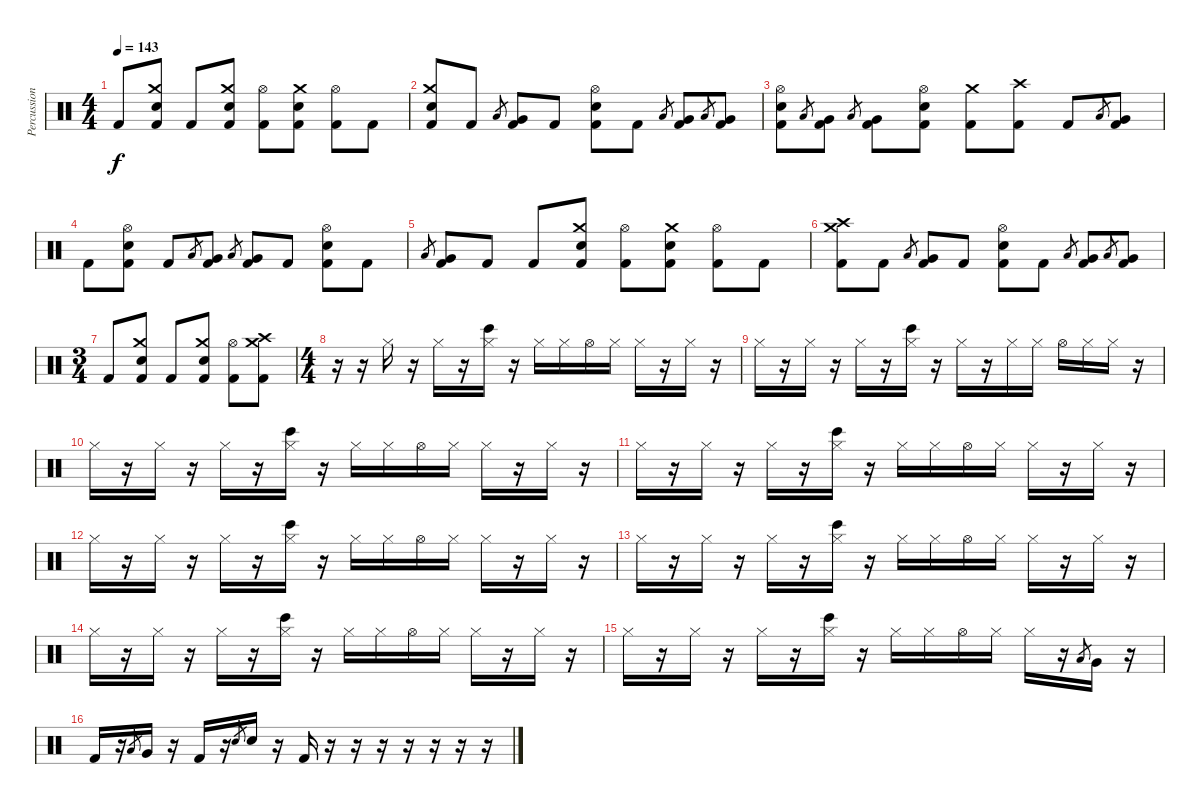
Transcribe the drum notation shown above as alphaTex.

\track ("Percussion" "Percussion") {instrument percussion}
\staff {score}
\articulation defaults
\ts (4 4)
\tempo 143
\clef neutral
\ks c "Kick (hit) 2".8{dy f}
("Crash medium (hit)" "Electric Snare (hit)" "Kick (hit) 2").8 "Kick (hit) 2".8 ("Crash medium (hit)" "Electric Snare (hit)" "Kick (hit) 2").8 ("Hi-Hat (open)" "Kick (hit) 2").8 ("Crash medium (hit)" "Electric Snare (hit)" "Kick (hit) 2").8 ("Hi-Hat (open)" "Kick (hit) 2").8 "Kick (hit) 2".8 |
("Crash medium (hit)" "Electric Snare (hit)" "Kick (hit) 2").8 "Kick (hit) 2".8 "Low Tom (hit)".8{gr} ("Very Low Tom (hit)" "Kick (hit) 2").8 "Kick (hit) 2".8 ("Hi-Hat (open)" "Electric Snare (hit)" "Kick (hit) 2").8 "Kick (hit) 2".8 "Low Tom (hit)".8{gr} ("Very Low Tom (hit)" "Kick (hit) 2").8 "Low Tom (hit)".8{gr} ("Very Low Tom (hit)" "Kick (hit) 2").8 |
("Hi-Hat (open)" "Electric Snare (hit)" "Kick (hit) 2").8 "Low Tom (hit)".8{gr} ("Very Low Tom (hit)" "Kick (hit) 2").8 "Low Tom (hit)".8{gr} ("Very Low Tom (hit)" "Kick (hit) 2").8 ("Hi-Hat (open)" "Electric Snare (hit)" "Kick (hit) 2").8 ("Crash medium (hit)" "Kick (hit) 2").8 ("Crash high (hit)" "Kick (hit) 2").8 "Kick (hit) 2".8 "Low Tom (hit)".8{gr} ("Very Low Tom (hit)" "Kick (hit) 2").8 |
"Kick (hit) 2".8 ("Hi-Hat (open)" "Electric Snare (hit)" "Kick (hit) 2").8 "Kick (hit) 2".8 "Low Tom (hit)".8{gr} ("Very Low Tom (hit)" "Kick (hit) 2").8 "Low Tom (hit)".8{gr} ("Very Low Tom (hit)" "Kick (hit) 2").8 "Kick (hit) 2".8 ("Hi-Hat (open)" "Electric Snare (hit)" "Kick (hit) 2").8 "Kick (hit) 2".8 |
"Low Tom (hit)".8{gr} ("Very Low Tom (hit)" "Kick (hit) 2").8 "Kick (hit) 2".8 "Kick (hit) 2".8 ("Crash medium (hit)" "Electric Snare (hit)" "Kick (hit) 2").8 ("Hi-Hat (open)" "Kick (hit) 2").8 ("Crash medium (hit)" "Electric Snare (hit)" "Kick (hit) 2").8 ("Hi-Hat (open)" "Kick (hit) 2").8 "Kick (hit) 2".8 |
("Crash medium (hit)" "Crash high (hit)" "Kick (hit) 2").8 "Kick (hit) 2".8 "Low Tom (hit)".8{gr} ("Very Low Tom (hit)" "Kick (hit) 2").8 "Kick (hit) 2".8 ("Hi-Hat (open)" "Electric Snare (hit)" "Kick (hit) 2").8 "Kick (hit) 2".8 "Low Tom (hit)".8{gr} ("Very Low Tom (hit)" "Kick (hit) 2").8 "Low Tom (hit)".8{gr} ("Very Low Tom (hit)" "Kick (hit) 2").8 |
\ts (3 4)
"Kick (hit) 2".8 ("Crash medium (hit)" "Electric Snare (hit)" "Kick (hit) 2").8 "Kick (hit) 2".8 ("Crash medium (hit)" "Electric Snare (hit)" "Kick (hit) 2").8 ("Hi-Hat (open)" "Kick (hit) 2").8 ("Crash medium (hit)" "Crash high (hit)" "Kick (hit) 2").8 |
\ts (4 4)
r.16 r.16 "Hi-Hat (closed)".16 r.16 "Hi-Hat (closed)".16 r.16 ("Hi-Hat (closed)" "Bongo High (hit)").16 r.16 "Hi-Hat (closed)".16 "Hi-Hat (closed)".16 "Hi-Hat (open)".16 "Hi-Hat (closed)".16 "Hi-Hat (closed)".16 r.16 "Hi-Hat (closed)".16 r.16 |
"Hi-Hat (closed)".16 r.16 "Hi-Hat (closed)".16 r.16 "Hi-Hat (closed)".16 r.16 ("Hi-Hat (closed)" "Bongo High (hit)").16 r.16 "Hi-Hat (closed)".16 r.16 "Hi-Hat (closed)".16 "Hi-Hat (closed)".16 "Hi-Hat (open)".16 "Hi-Hat (closed)".16 "Hi-Hat (closed)".16 r.16 |
"Hi-Hat (closed)".16 r.16 "Hi-Hat (closed)".16 r.16 "Hi-Hat (closed)".16 r.16 ("Hi-Hat (closed)" "Bongo High (hit)").16 r.16 "Hi-Hat (closed)".16 "Hi-Hat (closed)".16 "Hi-Hat (open)".16 "Hi-Hat (closed)".16 "Hi-Hat (closed)".16 r.16 "Hi-Hat (closed)".16 r.16 |
"Hi-Hat (closed)".16 r.16 "Hi-Hat (closed)".16 r.16 "Hi-Hat (closed)".16 r.16 ("Hi-Hat (closed)" "Bongo High (hit)").16 r.16 "Hi-Hat (closed)".16 "Hi-Hat (closed)".16 "Hi-Hat (open)".16 "Hi-Hat (closed)".16 "Hi-Hat (closed)".16 r.16 "Hi-Hat (closed)".16 r.16 |
"Hi-Hat (closed)".16 r.16 "Hi-Hat (closed)".16 r.16 "Hi-Hat (closed)".16 r.16 ("Hi-Hat (closed)" "Bongo High (hit)").16 r.16 "Hi-Hat (closed)".16 "Hi-Hat (closed)".16 "Hi-Hat (open)".16 "Hi-Hat (closed)".16 "Hi-Hat (closed)".16 r.16 "Hi-Hat (closed)".16 r.16 |
"Hi-Hat (closed)".16 r.16 "Hi-Hat (closed)".16 r.16 "Hi-Hat (closed)".16 r.16 ("Hi-Hat (closed)" "Bongo High (hit)").16 r.16 "Hi-Hat (closed)".16 "Hi-Hat (closed)".16 "Hi-Hat (open)".16 "Hi-Hat (closed)".16 "Hi-Hat (closed)".16 r.16 "Hi-Hat (closed)".16 r.16 |
"Hi-Hat (closed)".16 r.16 "Hi-Hat (closed)".16 r.16 "Hi-Hat (closed)".16 r.16 ("Hi-Hat (closed)" "Bongo High (hit)").16 r.16 "Hi-Hat (closed)".16 "Hi-Hat (closed)".16 "Hi-Hat (open)".16 "Hi-Hat (closed)".16 "Hi-Hat (closed)".16 r.16 "Hi-Hat (closed)".16 r.16 |
"Hi-Hat (closed)".16 r.16 "Hi-Hat (closed)".16 r.16 "Hi-Hat (closed)".16 r.16 ("Hi-Hat (closed)" "Bongo High (hit)").16 r.16 "Hi-Hat (closed)".16 "Hi-Hat (closed)".16 "Hi-Hat (open)".16 "Hi-Hat (closed)".16 "Hi-Hat (closed)".16 r.16 "Low Tom (hit)".8{gr} "Very Low Tom (hit)".16 r.16 |
"Kick (hit) 2".16 r.16 "Low Tom (hit)".8{gr} "Very Low Tom (hit)".16 r.16 "Kick (hit) 2".16 r.16 "Electric Snare (hit)".8{gr} "Electric Snare (hit)".16 r.16 "Kick (hit) 2".16 r.16 r.16 r.16 r.16 r.16 r.16 r.16
